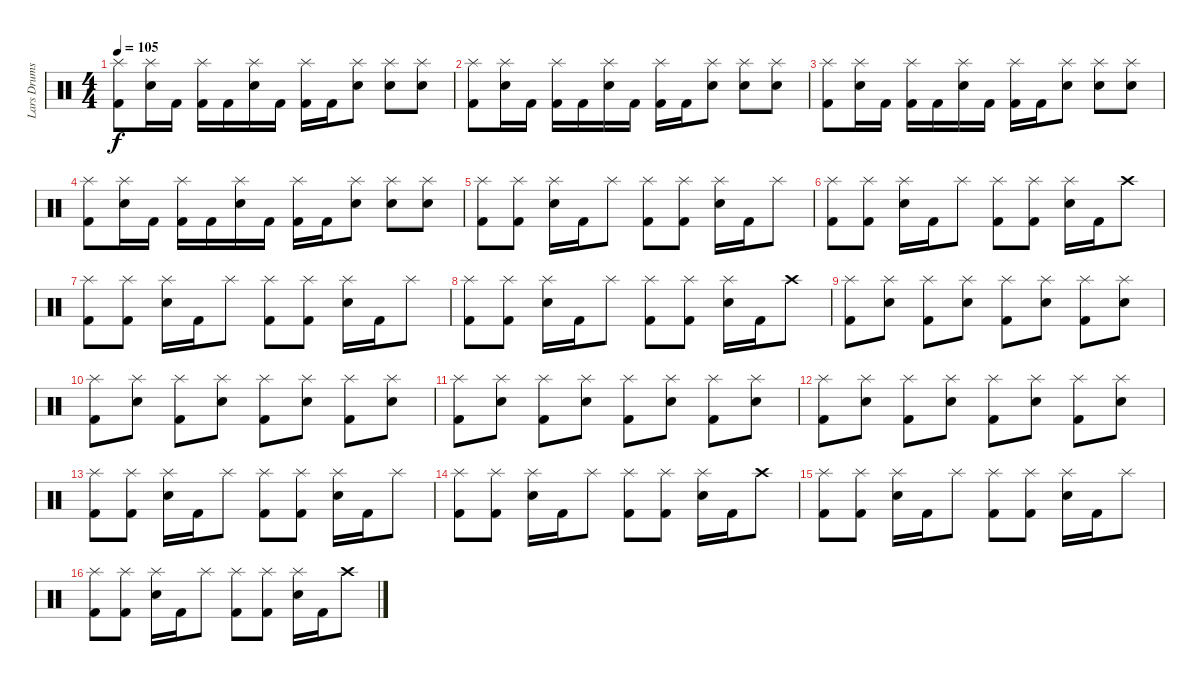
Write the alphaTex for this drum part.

\track ("Lars Drums" "Lars Drums") {instrument percussion}
\staff {score}
\articulation defaults
\ts (4 4)
\tempo 105
\clef neutral
\ks c
("Splash (hit)" "Kick (hit) 2").8{dy f} ("Splash (hit)" "Snare (hit) 2").16 "Kick (hit) 2".16 ("Splash (hit)" "Kick (hit) 2").16 "Kick (hit) 2".16 ("Splash (hit)" "Snare (hit) 2").16 "Kick (hit) 2".16 ("Splash (hit)" "Kick (hit) 2").16 "Kick (hit) 2".16 ("Splash (hit)" "Snare (hit) 2").8 ("Splash (hit)" "Snare (hit) 2").8 ("Splash (hit)" "Snare (hit) 2").8 |
("Splash (hit)" "Kick (hit) 2").8 ("Splash (hit)" "Snare (hit) 2").16 "Kick (hit) 2".16 ("Splash (hit)" "Kick (hit) 2").16 "Kick (hit) 2".16 ("Splash (hit)" "Snare (hit) 2").16 "Kick (hit) 2".16 ("Splash (hit)" "Kick (hit) 2").16 "Kick (hit) 2".16 ("Splash (hit)" "Snare (hit) 2").8 ("Splash (hit)" "Snare (hit) 2").8 ("Splash (hit)" "Snare (hit) 2").8 |
("Splash (hit)" "Kick (hit) 2").8 ("Splash (hit)" "Snare (hit) 2").16 "Kick (hit) 2".16 ("Splash (hit)" "Kick (hit) 2").16 "Kick (hit) 2".16 ("Splash (hit)" "Snare (hit) 2").16 "Kick (hit) 2".16 ("Splash (hit)" "Kick (hit) 2").16 "Kick (hit) 2".16 ("Splash (hit)" "Snare (hit) 2").8 ("Splash (hit)" "Snare (hit) 2").8 ("Splash (hit)" "Snare (hit) 2").8 |
("Splash (hit)" "Kick (hit) 2").8 ("Splash (hit)" "Snare (hit) 2").16 "Kick (hit) 2".16 ("Splash (hit)" "Kick (hit) 2").16 "Kick (hit) 2".16 ("Splash (hit)" "Snare (hit) 2").16 "Kick (hit) 2".16 ("Splash (hit)" "Kick (hit) 2").16 "Kick (hit) 2".16 ("Splash (hit)" "Snare (hit) 2").8 ("Splash (hit)" "Snare (hit) 2").8 ("Splash (hit)" "Snare (hit) 2").8 |
("Splash (hit)" "Kick (hit) 2").8 ("Splash (hit)" "Kick (hit) 2").8 ("Splash (hit)" "Snare (hit) 2").16 "Kick (hit) 2".16 "Splash (hit)".8 ("Splash (hit)" "Kick (hit) 2").8 ("Splash (hit)" "Kick (hit) 2").8 ("Splash (hit)" "Snare (hit) 2").16 "Kick (hit) 2".16 "Splash (hit)".8 |
("Splash (hit)" "Kick (hit) 2").8 ("Splash (hit)" "Kick (hit) 2").8 ("Splash (hit)" "Snare (hit) 2").16 "Kick (hit) 2".16 "Splash (hit)".8 ("Splash (hit)" "Kick (hit) 2").8 ("Splash (hit)" "Kick (hit) 2").8 ("Splash (hit)" "Snare (hit) 2").16 "Kick (hit) 2".16 "Crash high (hit)".8 |
("Splash (hit)" "Kick (hit) 2").8 ("Splash (hit)" "Kick (hit) 2").8 ("Splash (hit)" "Snare (hit) 2").16 "Kick (hit) 2".16 "Splash (hit)".8 ("Splash (hit)" "Kick (hit) 2").8 ("Splash (hit)" "Kick (hit) 2").8 ("Splash (hit)" "Snare (hit) 2").16 "Kick (hit) 2".16 "Splash (hit)".8 |
("Splash (hit)" "Kick (hit) 2").8 ("Splash (hit)" "Kick (hit) 2").8 ("Splash (hit)" "Snare (hit) 2").16 "Kick (hit) 2".16 "Splash (hit)".8 ("Splash (hit)" "Kick (hit) 2").8 ("Splash (hit)" "Kick (hit) 2").8 ("Splash (hit)" "Snare (hit) 2").16 "Kick (hit) 2".16 "Crash high (hit)".8 |
("Splash (hit)" "Kick (hit) 2").8 ("Splash (hit)" "Snare (hit) 2").8 ("Splash (hit)" "Kick (hit) 2").8 ("Splash (hit)" "Snare (hit) 2").8 ("Splash (hit)" "Kick (hit) 2").8 ("Splash (hit)" "Snare (hit) 2").8 ("Splash (hit)" "Kick (hit) 2").8 ("Splash (hit)" "Snare (hit) 2").8 |
("Splash (hit)" "Kick (hit) 2").8 ("Splash (hit)" "Snare (hit) 2").8 ("Splash (hit)" "Kick (hit) 2").8 ("Splash (hit)" "Snare (hit) 2").8 ("Splash (hit)" "Kick (hit) 2").8 ("Splash (hit)" "Snare (hit) 2").8 ("Splash (hit)" "Kick (hit) 2").8 ("Splash (hit)" "Snare (hit) 2").8 |
("Splash (hit)" "Kick (hit) 2").8 ("Splash (hit)" "Snare (hit) 2").8 ("Splash (hit)" "Kick (hit) 2").8 ("Splash (hit)" "Snare (hit) 2").8 ("Splash (hit)" "Kick (hit) 2").8 ("Splash (hit)" "Snare (hit) 2").8 ("Splash (hit)" "Kick (hit) 2").8 ("Splash (hit)" "Snare (hit) 2").8 |
("Splash (hit)" "Kick (hit) 2").8 ("Splash (hit)" "Snare (hit) 2").8 ("Splash (hit)" "Kick (hit) 2").8 ("Splash (hit)" "Snare (hit) 2").8 ("Splash (hit)" "Kick (hit) 2").8 ("Splash (hit)" "Snare (hit) 2").8 ("Splash (hit)" "Kick (hit) 2").8 ("Splash (hit)" "Snare (hit) 2").8 |
("Splash (hit)" "Kick (hit) 2").8 ("Splash (hit)" "Kick (hit) 2").8 ("Splash (hit)" "Snare (hit) 2").16 "Kick (hit) 2".16 "Splash (hit)".8 ("Splash (hit)" "Kick (hit) 2").8 ("Splash (hit)" "Kick (hit) 2").8 ("Splash (hit)" "Snare (hit) 2").16 "Kick (hit) 2".16 "Splash (hit)".8 |
("Splash (hit)" "Kick (hit) 2").8 ("Splash (hit)" "Kick (hit) 2").8 ("Splash (hit)" "Snare (hit) 2").16 "Kick (hit) 2".16 "Splash (hit)".8 ("Splash (hit)" "Kick (hit) 2").8 ("Splash (hit)" "Kick (hit) 2").8 ("Splash (hit)" "Snare (hit) 2").16 "Kick (hit) 2".16 "Crash high (hit)".8 |
("Splash (hit)" "Kick (hit) 2").8 ("Splash (hit)" "Kick (hit) 2").8 ("Splash (hit)" "Snare (hit) 2").16 "Kick (hit) 2".16 "Splash (hit)".8 ("Splash (hit)" "Kick (hit) 2").8 ("Splash (hit)" "Kick (hit) 2").8 ("Splash (hit)" "Snare (hit) 2").16 "Kick (hit) 2".16 "Splash (hit)".8 |
("Splash (hit)" "Kick (hit) 2").8 ("Splash (hit)" "Kick (hit) 2").8 ("Splash (hit)" "Snare (hit) 2").16 "Kick (hit) 2".16 "Splash (hit)".8 ("Splash (hit)" "Kick (hit) 2").8 ("Splash (hit)" "Kick (hit) 2").8 ("Splash (hit)" "Snare (hit) 2").16 "Kick (hit) 2".16 "Crash high (hit)".8
